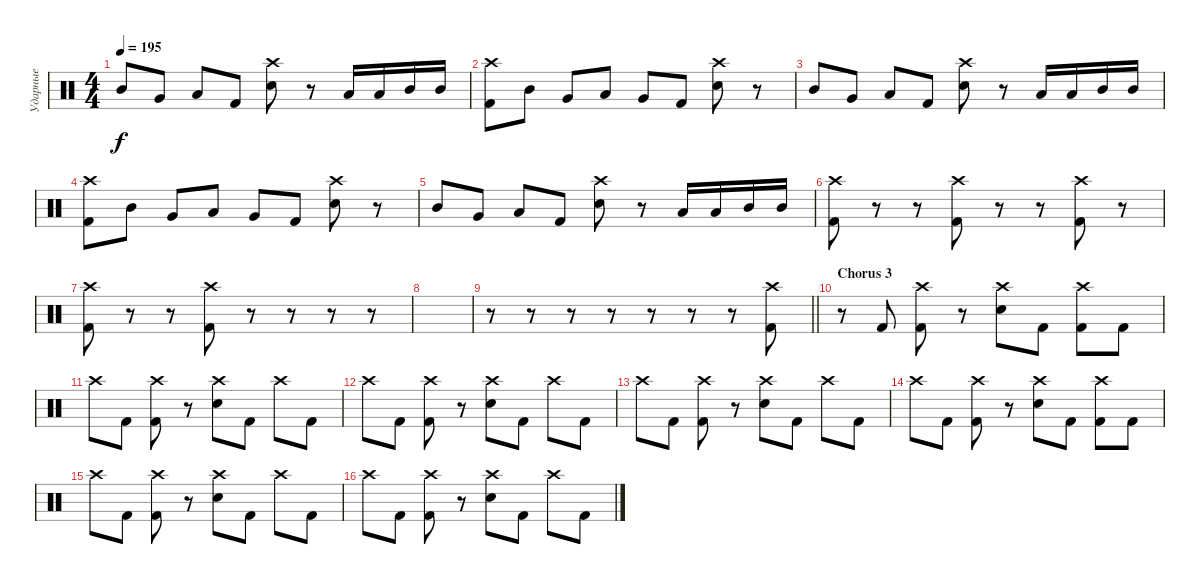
\track ("Ударные" "Ударные") {instrument percussion}
\staff {score}
\articulation defaults
\ts (4 4)
\tempo 195
\clef neutral
\ks c "Mid Tom (hit)".8{dy f} "Very Low Tom (hit)".8 "Low Tom (hit)".8 "Kick (hit) 2".8
("Crash high (hit)" "Electric Snare (hit)").8 r.8 "Low Tom (hit)".16 "Low Tom (hit)".16 "Mid Tom (hit)".16 "Mid Tom (hit)".16 |
("Crash high (hit)" "Kick (hit) 2").8 "Mid Tom (hit)".8 "Very Low Tom (hit)".8 "Low Tom (hit)".8 "Very Low Tom (hit)".8 "Kick (hit) 2".8 ("Crash high (hit)" "Electric Snare (hit)").8 r.8 |
"Mid Tom (hit)".8 "Very Low Tom (hit)".8 "Low Tom (hit)".8 "Kick (hit) 2".8 ("Crash high (hit)" "Electric Snare (hit)").8 r.8 "Low Tom (hit)".16 "Low Tom (hit)".16 "Mid Tom (hit)".16 "Mid Tom (hit)".16 |
("Crash high (hit)" "Kick (hit) 2").8 "Mid Tom (hit)".8 "Very Low Tom (hit)".8 "Low Tom (hit)".8 "Very Low Tom (hit)".8 "Kick (hit) 2".8 ("Crash high (hit)" "Electric Snare (hit)").8 r.8 |
"Mid Tom (hit)".8 "Very Low Tom (hit)".8 "Low Tom (hit)".8 "Kick (hit) 2".8 ("Crash high (hit)" "Electric Snare (hit)").8 r.8 "Low Tom (hit)".16 "Low Tom (hit)".16 "Mid Tom (hit)".16 "Mid Tom (hit)".16 |
("Crash high (hit)" "Kick (hit) 2").8 r.8 r.8 ("Crash high (hit)" "Kick (hit) 2").8 r.8 r.8 ("Crash high (hit)" "Kick (hit) 2").8 r.8 |
("Crash high (hit)" "Kick (hit) 2").8 r.8 r.8 ("Crash high (hit)" "Kick (hit) 2").8 r.8 r.8 r.8 r.8 |
|
\barLineRight lightlight
r.8 r.8 r.8 r.8 r.8 r.8 r.8 ("Crash high (hit)" "Kick (hit) 2").8 |
\section ("" "Chorus 3")
r.8 "Kick (hit) 2".8 ("Crash high (hit)" "Kick (hit) 2").8 r.8 ("Crash high (hit)" "Electric Snare (hit)").8 "Kick (hit) 2".8 ("Crash high (hit)" "Kick (hit) 2").8 "Kick (hit) 2".8 |
"Crash high (hit)".8 "Kick (hit) 2".8 ("Crash high (hit)" "Kick (hit) 2").8 r.8 ("Crash high (hit)" "Electric Snare (hit)").8 "Kick (hit) 2".8 "Crash high (hit)".8 "Kick (hit) 2".8 |
"Crash high (hit)".8 "Kick (hit) 2".8 ("Crash high (hit)" "Kick (hit) 2").8 r.8 ("Crash high (hit)" "Electric Snare (hit)").8 "Kick (hit) 2".8 "Crash high (hit)".8 "Kick (hit) 2".8 |
"Crash high (hit)".8 "Kick (hit) 2".8 ("Crash high (hit)" "Kick (hit) 2").8 r.8 ("Crash high (hit)" "Electric Snare (hit)").8 "Kick (hit) 2".8 "Crash high (hit)".8 "Kick (hit) 2".8 |
"Crash high (hit)".8 "Kick (hit) 2".8 ("Crash high (hit)" "Kick (hit) 2").8 r.8 ("Crash high (hit)" "Electric Snare (hit)").8 "Kick (hit) 2".8 ("Crash high (hit)" "Kick (hit) 2").8 "Kick (hit) 2".8 |
"Crash high (hit)".8 "Kick (hit) 2".8 ("Crash high (hit)" "Kick (hit) 2").8 r.8 ("Crash high (hit)" "Electric Snare (hit)").8 "Kick (hit) 2".8 "Crash high (hit)".8 "Kick (hit) 2".8 |
"Crash high (hit)".8 "Kick (hit) 2".8 ("Crash high (hit)" "Kick (hit) 2").8 r.8 ("Crash high (hit)" "Electric Snare (hit)").8 "Kick (hit) 2".8 "Crash high (hit)".8 "Kick (hit) 2".8
